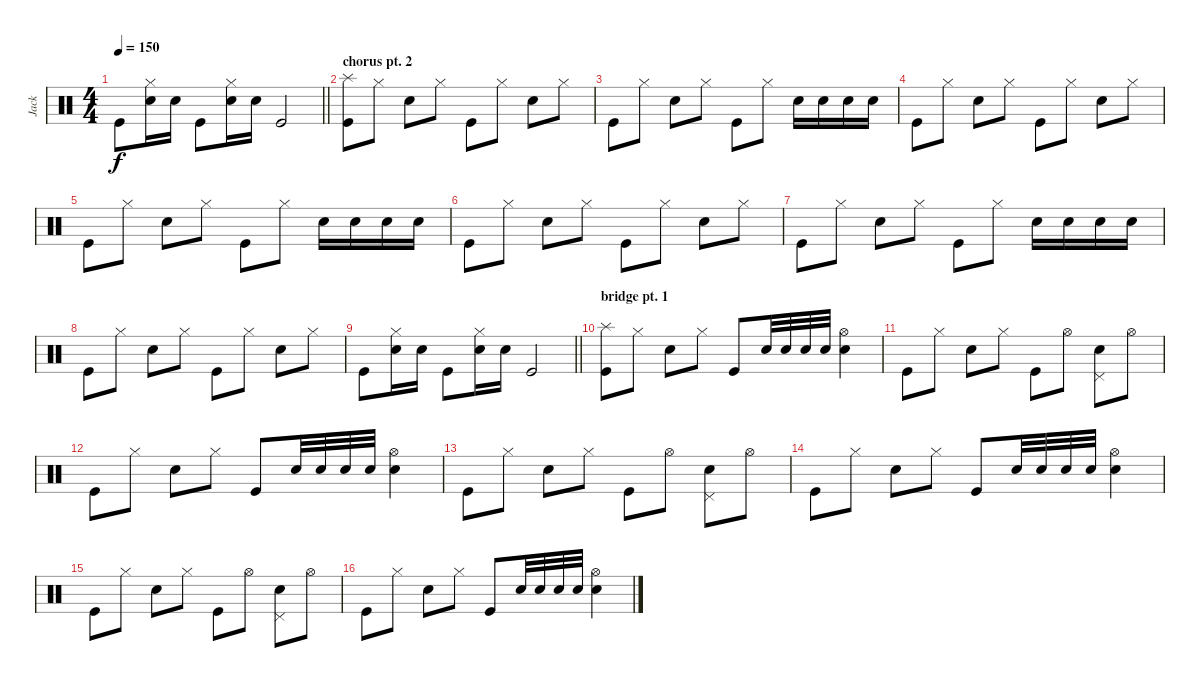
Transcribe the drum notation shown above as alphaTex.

\track ("Jack" "Jack") {instrument percussion}
\staff {score}
\articulation defaults
\ts (4 4)
\tempo 150
\clef neutral
\barLineRight lightlight
\ks c "Kick (hit)".8{dy f}
("Hi-Hat (closed)" "Electric Snare (hit)").16 "Electric Snare (hit)".16 "Kick (hit)".8 ("Hi-Hat (closed)" "Electric Snare (hit)").16 "Electric Snare (hit)".16 "Kick (hit)".2 |
\section ("" "chorus pt. 2")
("Splash (hit)" "Kick (hit)").8 "Hi-Hat (closed)".8 "Electric Snare (hit)".8 "Hi-Hat (closed)".8 "Kick (hit)".8 "Hi-Hat (closed)".8 "Electric Snare (hit)".8 "Hi-Hat (closed)".8 |
"Kick (hit)".8 "Hi-Hat (closed)".8 "Electric Snare (hit)".8 "Hi-Hat (closed)".8 "Kick (hit)".8 "Hi-Hat (closed)".8 "Electric Snare (hit)".16 "Electric Snare (hit)".16 "Electric Snare (hit)".16 "Electric Snare (hit)".16 |
"Kick (hit)".8 "Hi-Hat (closed)".8 "Electric Snare (hit)".8 "Hi-Hat (closed)".8 "Kick (hit)".8 "Hi-Hat (closed)".8 "Electric Snare (hit)".8 "Hi-Hat (closed)".8 |
"Kick (hit)".8 "Hi-Hat (closed)".8 "Electric Snare (hit)".8 "Hi-Hat (closed)".8 "Kick (hit)".8 "Hi-Hat (closed)".8 "Electric Snare (hit)".16 "Electric Snare (hit)".16 "Electric Snare (hit)".16 "Electric Snare (hit)".16 |
"Kick (hit)".8 "Hi-Hat (closed)".8 "Electric Snare (hit)".8 "Hi-Hat (closed)".8 "Kick (hit)".8 "Hi-Hat (closed)".8 "Electric Snare (hit)".8 "Hi-Hat (closed)".8 |
"Kick (hit)".8 "Hi-Hat (closed)".8 "Electric Snare (hit)".8 "Hi-Hat (closed)".8 "Kick (hit)".8 "Hi-Hat (closed)".8 "Electric Snare (hit)".16 "Electric Snare (hit)".16 "Electric Snare (hit)".16 "Electric Snare (hit)".16 |
"Kick (hit)".8 "Hi-Hat (closed)".8 "Electric Snare (hit)".8 "Hi-Hat (closed)".8 "Kick (hit)".8 "Hi-Hat (closed)".8 "Electric Snare (hit)".8 "Hi-Hat (closed)".8 |
\barLineRight lightlight "Kick (hit)".8
("Hi-Hat (closed)" "Electric Snare (hit)").16 "Electric Snare (hit)".16 "Kick (hit)".8 ("Hi-Hat (closed)" "Electric Snare (hit)").16 "Electric Snare (hit)".16 "Kick (hit)".2 |
\section ("" "bridge pt. 1")
("Splash (hit)" "Kick (hit)").8 "Hi-Hat (closed)".8 "Electric Snare (hit)".8 "Hi-Hat (closed)".8 "Kick (hit)".8 "Electric Snare (hit)".32 "Electric Snare (hit)".32 "Electric Snare (hit)".32 "Electric Snare (hit)".32 ("Hi-Hat (open)" "Electric Snare (hit)").4 |
"Kick (hit)".8 "Hi-Hat (closed)".8 "Electric Snare (hit)".8 "Hi-Hat (closed)".8 "Kick (hit)".8 "Hi-Hat (open)".8 ("Pedal Hi-Hat (hit)" "Electric Snare (hit)").8 "Hi-Hat (open)".8 |
"Kick (hit)".8 "Hi-Hat (closed)".8 "Electric Snare (hit)".8 "Hi-Hat (closed)".8 "Kick (hit)".8 "Electric Snare (hit)".32 "Electric Snare (hit)".32 "Electric Snare (hit)".32 "Electric Snare (hit)".32 ("Hi-Hat (open)" "Electric Snare (hit)").4 |
"Kick (hit)".8 "Hi-Hat (closed)".8 "Electric Snare (hit)".8 "Hi-Hat (closed)".8 "Kick (hit)".8 "Hi-Hat (open)".8 ("Pedal Hi-Hat (hit)" "Electric Snare (hit)").8 "Hi-Hat (open)".8 |
"Kick (hit)".8 "Hi-Hat (closed)".8 "Electric Snare (hit)".8 "Hi-Hat (closed)".8 "Kick (hit)".8 "Electric Snare (hit)".32 "Electric Snare (hit)".32 "Electric Snare (hit)".32 "Electric Snare (hit)".32 ("Hi-Hat (open)" "Electric Snare (hit)").4 |
"Kick (hit)".8 "Hi-Hat (closed)".8 "Electric Snare (hit)".8 "Hi-Hat (closed)".8 "Kick (hit)".8 "Hi-Hat (open)".8 ("Pedal Hi-Hat (hit)" "Electric Snare (hit)").8 "Hi-Hat (open)".8 |
"Kick (hit)".8 "Hi-Hat (closed)".8 "Electric Snare (hit)".8 "Hi-Hat (closed)".8 "Kick (hit)".8 "Electric Snare (hit)".32 "Electric Snare (hit)".32 "Electric Snare (hit)".32 "Electric Snare (hit)".32 ("Hi-Hat (open)" "Electric Snare (hit)").4
